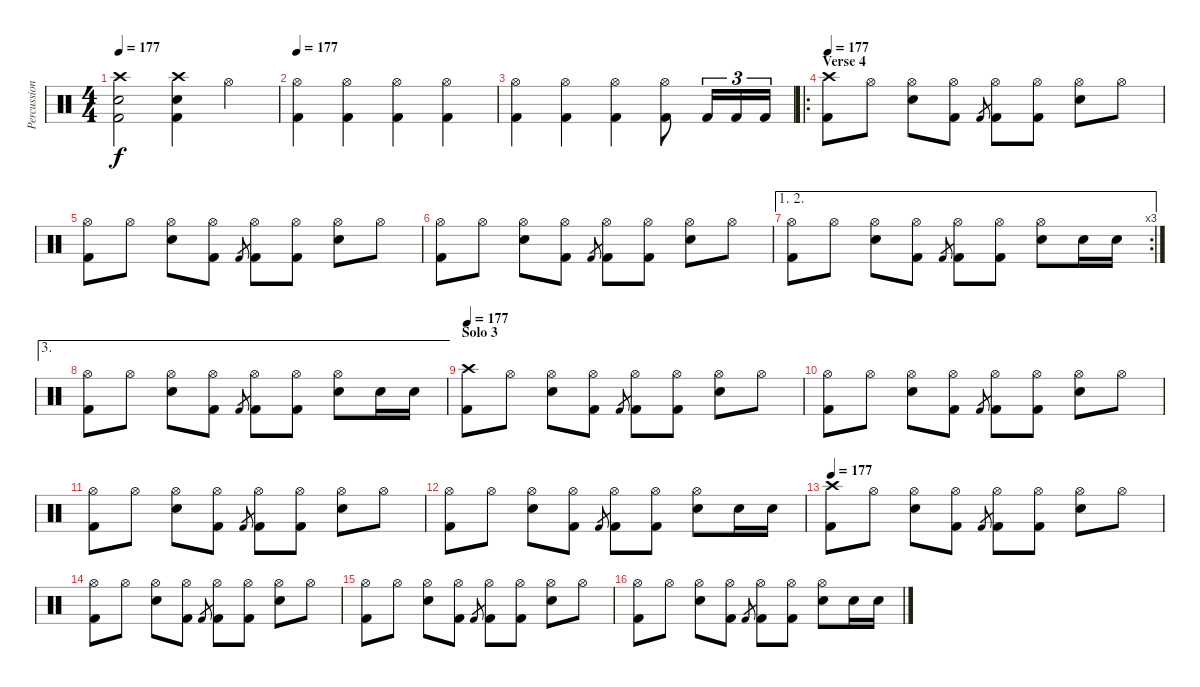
\track ("Percussion" "Percussion") {instrument percussion}
\staff {score}
\articulation defaults
\ts (4 4)
\tempo 177
\clef neutral
\ks c
("Crash high (hit)" "Electric Snare (hit)" "Kick (hit) 2").2{dy f} ("Crash high (hit)" "Electric Snare (hit)" "Kick (hit) 2").4 "Hi-Hat (open)".4 |
\tempo 177
("Hi-Hat (open)" "Kick (hit) 2").4 ("Hi-Hat (open)" "Kick (hit) 2").4 ("Hi-Hat (open)" "Kick (hit) 2").4 ("Hi-Hat (open)" "Kick (hit) 2").4 |
("Hi-Hat (open)" "Kick (hit) 2").4 ("Hi-Hat (open)" "Kick (hit) 2").4 ("Hi-Hat (open)" "Kick (hit) 2").4 ("Hi-Hat (open)" "Kick (hit) 2").8 "Kick (hit) 2".16{tu (3 2)} "Kick (hit) 2".16{tu (3 2)} "Kick (hit) 2".16{tu (3 2)} |
\ro
\section ("" "Verse 4")
\tempo 177
("Crash high (hit)" "Kick (hit) 2").8 "Hi-Hat (open)".8 ("Hi-Hat (open)" "Electric Snare (hit)").8 ("Hi-Hat (open)" "Kick (hit) 2").8 "Kick (hit) 2".8{gr} ("Hi-Hat (open)" "Kick (hit) 2").8 ("Hi-Hat (open)" "Kick (hit) 2").8 ("Hi-Hat (open)" "Electric Snare (hit)").8 "Hi-Hat (open)".8 |
("Hi-Hat (open)" "Kick (hit) 2").8 "Hi-Hat (open)".8 ("Hi-Hat (open)" "Electric Snare (hit)").8 ("Hi-Hat (open)" "Kick (hit) 2").8 "Kick (hit) 2".8{gr} ("Hi-Hat (open)" "Kick (hit) 2").8 ("Hi-Hat (open)" "Kick (hit) 2").8 ("Hi-Hat (open)" "Electric Snare (hit)").8 "Hi-Hat (open)".8 |
("Hi-Hat (open)" "Kick (hit) 2").8 "Hi-Hat (open)".8 ("Hi-Hat (open)" "Electric Snare (hit)").8 ("Hi-Hat (open)" "Kick (hit) 2").8 "Kick (hit) 2".8{gr} ("Hi-Hat (open)" "Kick (hit) 2").8 ("Hi-Hat (open)" "Kick (hit) 2").8 ("Hi-Hat (open)" "Electric Snare (hit)").8 "Hi-Hat (open)".8 |
\ae (1 2)
\rc 3
("Hi-Hat (open)" "Kick (hit) 2").8 "Hi-Hat (open)".8 ("Hi-Hat (open)" "Electric Snare (hit)").8 ("Hi-Hat (open)" "Kick (hit) 2").8 "Kick (hit) 2".8{gr} ("Hi-Hat (open)" "Kick (hit) 2").8 ("Hi-Hat (open)" "Kick (hit) 2").8 ("Hi-Hat (open)" "Electric Snare (hit)").8 "Electric Snare (hit)".16 "Electric Snare (hit)".16 |
\ae 3
("Hi-Hat (open)" "Kick (hit) 2").8 "Hi-Hat (open)".8 ("Hi-Hat (open)" "Electric Snare (hit)").8 ("Hi-Hat (open)" "Kick (hit) 2").8 "Kick (hit) 2".8{gr} ("Hi-Hat (open)" "Kick (hit) 2").8 ("Hi-Hat (open)" "Kick (hit) 2").8 ("Hi-Hat (open)" "Electric Snare (hit)").8 "Electric Snare (hit)".16 "Electric Snare (hit)".16 |
\section ("" "Solo 3")
\tempo 177
("Crash high (hit)" "Kick (hit) 2").8 "Hi-Hat (open)".8 ("Hi-Hat (open)" "Electric Snare (hit)").8 ("Hi-Hat (open)" "Kick (hit) 2").8 "Kick (hit) 2".8{gr} ("Hi-Hat (open)" "Kick (hit) 2").8 ("Hi-Hat (open)" "Kick (hit) 2").8 ("Hi-Hat (open)" "Electric Snare (hit)").8 "Hi-Hat (open)".8 |
("Hi-Hat (open)" "Kick (hit) 2").8 "Hi-Hat (open)".8 ("Hi-Hat (open)" "Electric Snare (hit)").8 ("Hi-Hat (open)" "Kick (hit) 2").8 "Kick (hit) 2".8{gr} ("Hi-Hat (open)" "Kick (hit) 2").8 ("Hi-Hat (open)" "Kick (hit) 2").8 ("Hi-Hat (open)" "Electric Snare (hit)").8 "Hi-Hat (open)".8 |
("Hi-Hat (open)" "Kick (hit) 2").8 "Hi-Hat (open)".8 ("Hi-Hat (open)" "Electric Snare (hit)").8 ("Hi-Hat (open)" "Kick (hit) 2").8 "Kick (hit) 2".8{gr} ("Hi-Hat (open)" "Kick (hit) 2").8 ("Hi-Hat (open)" "Kick (hit) 2").8 ("Hi-Hat (open)" "Electric Snare (hit)").8 "Hi-Hat (open)".8 |
("Hi-Hat (open)" "Kick (hit) 2").8 "Hi-Hat (open)".8 ("Hi-Hat (open)" "Electric Snare (hit)").8 ("Hi-Hat (open)" "Kick (hit) 2").8 "Kick (hit) 2".8{gr} ("Hi-Hat (open)" "Kick (hit) 2").8 ("Hi-Hat (open)" "Kick (hit) 2").8 ("Hi-Hat (open)" "Electric Snare (hit)").8 "Electric Snare (hit)".16 "Electric Snare (hit)".16 |
\tempo 177
("Crash high (hit)" "Kick (hit) 2").8 "Hi-Hat (open)".8 ("Hi-Hat (open)" "Electric Snare (hit)").8 ("Hi-Hat (open)" "Kick (hit) 2").8 "Kick (hit) 2".8{gr} ("Hi-Hat (open)" "Kick (hit) 2").8 ("Hi-Hat (open)" "Kick (hit) 2").8 ("Hi-Hat (open)" "Electric Snare (hit)").8 "Hi-Hat (open)".8 |
("Hi-Hat (open)" "Kick (hit) 2").8 "Hi-Hat (open)".8 ("Hi-Hat (open)" "Electric Snare (hit)").8 ("Hi-Hat (open)" "Kick (hit) 2").8 "Kick (hit) 2".8{gr} ("Hi-Hat (open)" "Kick (hit) 2").8 ("Hi-Hat (open)" "Kick (hit) 2").8 ("Hi-Hat (open)" "Electric Snare (hit)").8 "Hi-Hat (open)".8 |
("Hi-Hat (open)" "Kick (hit) 2").8 "Hi-Hat (open)".8 ("Hi-Hat (open)" "Electric Snare (hit)").8 ("Hi-Hat (open)" "Kick (hit) 2").8 "Kick (hit) 2".8{gr} ("Hi-Hat (open)" "Kick (hit) 2").8 ("Hi-Hat (open)" "Kick (hit) 2").8 ("Hi-Hat (open)" "Electric Snare (hit)").8 "Hi-Hat (open)".8 |
("Hi-Hat (open)" "Kick (hit) 2").8 "Hi-Hat (open)".8 ("Hi-Hat (open)" "Electric Snare (hit)").8 ("Hi-Hat (open)" "Kick (hit) 2").8 "Kick (hit) 2".8{gr} ("Hi-Hat (open)" "Kick (hit) 2").8 ("Hi-Hat (open)" "Kick (hit) 2").8 ("Hi-Hat (open)" "Electric Snare (hit)").8 "Electric Snare (hit)".16 "Electric Snare (hit)".16
